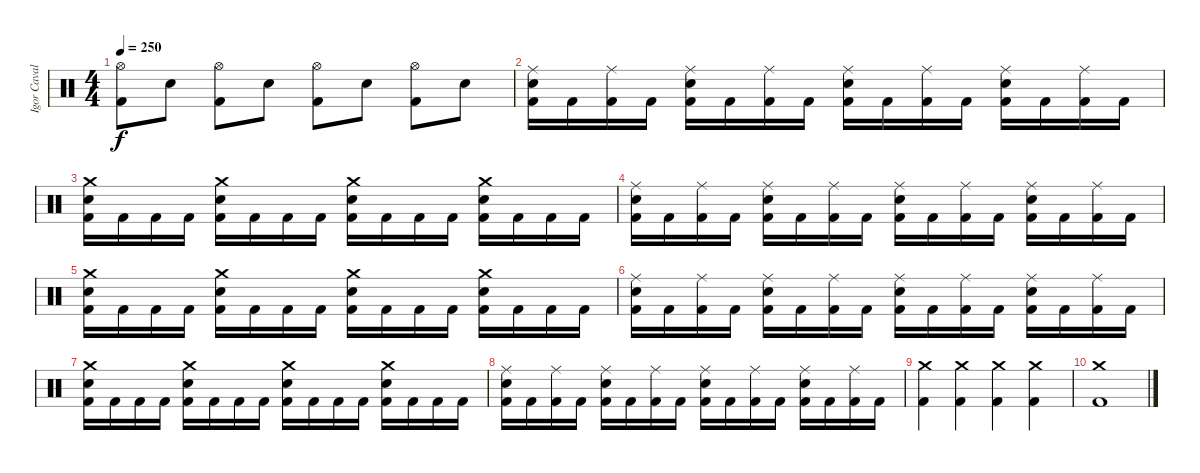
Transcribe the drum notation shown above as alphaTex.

\track ("Igor Cavalera" "Igor Caval") {instrument percussion}
\staff {score}
\articulation defaults
\ts (4 4)
\tempo 250
\clef neutral
\ks c
("Hi-Hat (open)" "Kick (hit) 2").8{dy f} "Electric Snare (hit)".8 ("Hi-Hat (open)" "Kick (hit) 2").8 "Electric Snare (hit)".8 ("Hi-Hat (open)" "Kick (hit) 2").8 "Electric Snare (hit)".8 ("Hi-Hat (open)" "Kick (hit) 2").8 "Electric Snare (hit)".8 |
("Electric Snare (hit)" "Kick (hit) 2" "Ride (middle)").16 "Kick (hit) 2".16 ("Kick (hit) 2" "Ride (middle)").16 "Kick (hit) 2".16 ("Electric Snare (hit)" "Kick (hit) 2" "Ride (middle)").16 "Kick (hit) 2".16 ("Kick (hit) 2" "Ride (middle)").16 "Kick (hit) 2".16 ("Electric Snare (hit)" "Kick (hit) 2" "Ride (middle)").16 "Kick (hit) 2".16 ("Kick (hit) 2" "Ride (middle)").16 "Kick (hit) 2".16 ("Electric Snare (hit)" "Kick (hit) 2" "Ride (middle)").16 "Kick (hit) 2".16 ("Kick (hit) 2" "Ride (middle)").16 "Kick (hit) 2".16 |
("Electric Snare (hit)" "Kick (hit) 2" "Crash medium (hit)").16 "Kick (hit) 2".16 "Kick (hit) 2".16 "Kick (hit) 2".16 ("Electric Snare (hit)" "Kick (hit) 2" "Crash medium (hit)").16 "Kick (hit) 2".16 "Kick (hit) 2".16 "Kick (hit) 2".16 ("Electric Snare (hit)" "Kick (hit) 2" "Crash medium (hit)").16 "Kick (hit) 2".16 "Kick (hit) 2".16 "Kick (hit) 2".16 ("Electric Snare (hit)" "Kick (hit) 2" "Crash medium (hit)").16 "Kick (hit) 2".16 "Kick (hit) 2".16 "Kick (hit) 2".16 |
("Electric Snare (hit)" "Kick (hit) 2" "Ride (middle)").16 "Kick (hit) 2".16 ("Kick (hit) 2" "Ride (middle)").16 "Kick (hit) 2".16 ("Electric Snare (hit)" "Kick (hit) 2" "Ride (middle)").16 "Kick (hit) 2".16 ("Kick (hit) 2" "Ride (middle)").16 "Kick (hit) 2".16 ("Electric Snare (hit)" "Kick (hit) 2" "Ride (middle)").16 "Kick (hit) 2".16 ("Kick (hit) 2" "Ride (middle)").16 "Kick (hit) 2".16 ("Electric Snare (hit)" "Kick (hit) 2" "Ride (middle)").16 "Kick (hit) 2".16 ("Kick (hit) 2" "Ride (middle)").16 "Kick (hit) 2".16 |
("Electric Snare (hit)" "Kick (hit) 2" "Crash medium (hit)").16 "Kick (hit) 2".16 "Kick (hit) 2".16 "Kick (hit) 2".16 ("Electric Snare (hit)" "Kick (hit) 2" "Crash medium (hit)").16 "Kick (hit) 2".16 "Kick (hit) 2".16 "Kick (hit) 2".16 ("Electric Snare (hit)" "Kick (hit) 2" "Crash medium (hit)").16 "Kick (hit) 2".16 "Kick (hit) 2".16 "Kick (hit) 2".16 ("Electric Snare (hit)" "Kick (hit) 2" "Crash medium (hit)").16 "Kick (hit) 2".16 "Kick (hit) 2".16 "Kick (hit) 2".16 |
("Electric Snare (hit)" "Kick (hit) 2" "Ride (middle)").16 "Kick (hit) 2".16 ("Kick (hit) 2" "Ride (middle)").16 "Kick (hit) 2".16 ("Electric Snare (hit)" "Kick (hit) 2" "Ride (middle)").16 "Kick (hit) 2".16 ("Kick (hit) 2" "Ride (middle)").16 "Kick (hit) 2".16 ("Electric Snare (hit)" "Kick (hit) 2" "Ride (middle)").16 "Kick (hit) 2".16 ("Kick (hit) 2" "Ride (middle)").16 "Kick (hit) 2".16 ("Electric Snare (hit)" "Kick (hit) 2" "Ride (middle)").16 "Kick (hit) 2".16 ("Kick (hit) 2" "Ride (middle)").16 "Kick (hit) 2".16 |
("Electric Snare (hit)" "Kick (hit) 2" "Crash medium (hit)").16 "Kick (hit) 2".16 "Kick (hit) 2".16 "Kick (hit) 2".16 ("Electric Snare (hit)" "Kick (hit) 2" "Crash medium (hit)").16 "Kick (hit) 2".16 "Kick (hit) 2".16 "Kick (hit) 2".16 ("Electric Snare (hit)" "Kick (hit) 2" "Crash medium (hit)").16 "Kick (hit) 2".16 "Kick (hit) 2".16 "Kick (hit) 2".16 ("Electric Snare (hit)" "Kick (hit) 2" "Crash medium (hit)").16 "Kick (hit) 2".16 "Kick (hit) 2".16 "Kick (hit) 2".16 |
("Electric Snare (hit)" "Kick (hit) 2" "Ride (middle)").16 "Kick (hit) 2".16 ("Kick (hit) 2" "Ride (middle)").16 "Kick (hit) 2".16 ("Electric Snare (hit)" "Kick (hit) 2" "Ride (middle)").16 "Kick (hit) 2".16 ("Kick (hit) 2" "Ride (middle)").16 "Kick (hit) 2".16 ("Electric Snare (hit)" "Kick (hit) 2" "Ride (middle)").16 "Kick (hit) 2".16 ("Kick (hit) 2" "Ride (middle)").16 "Kick (hit) 2".16 ("Electric Snare (hit)" "Kick (hit) 2" "Ride (middle)").16 "Kick (hit) 2".16 ("Kick (hit) 2" "Ride (middle)").16 "Kick (hit) 2".16 |
("Kick (hit) 2" "Crash medium (hit)").4 ("Kick (hit) 2" "Crash medium (hit)").4 ("Kick (hit) 2" "Crash medium (hit)").4 ("Kick (hit) 2" "Crash medium (hit)").4 |
("Crash medium (hit)" "Kick (hit) 2").1
